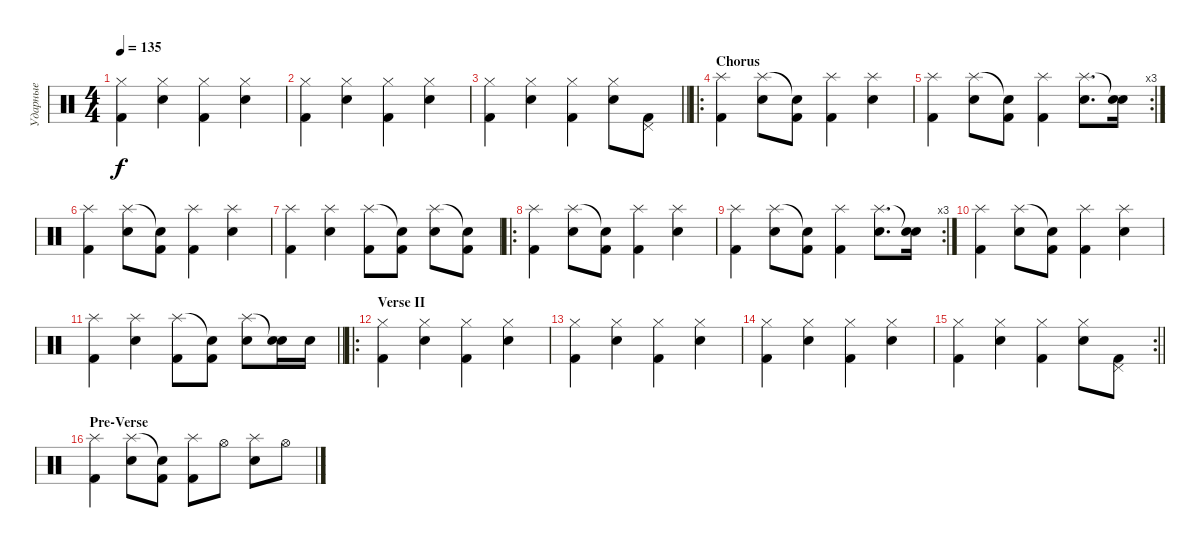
\track ("Ударные" "Ударные") {instrument percussion}
\staff {score}
\articulation defaults
\ts (4 4)
\tempo 135
\clef neutral
\ks c
("Hi-Hat (closed)" "Kick (hit) 2").4{dy f} ("Hi-Hat (closed)" "Electric Snare (hit)").4 ("Hi-Hat (closed)" "Kick (hit) 2").4 ("Hi-Hat (closed)" "Electric Snare (hit)").4 |
("Hi-Hat (closed)" "Kick (hit) 2").4 ("Hi-Hat (closed)" "Electric Snare (hit)").4 ("Hi-Hat (closed)" "Kick (hit) 2").4 ("Hi-Hat (closed)" "Electric Snare (hit)").4 |
\barLineRight lightlight
("Hi-Hat (closed)" "Kick (hit) 2").4 ("Hi-Hat (closed)" "Electric Snare (hit)").4 ("Hi-Hat (closed)" "Kick (hit) 2").4 ("Hi-Hat (closed)" "Electric Snare (hit)").8 ("Pedal Hi-Hat (hit)" "Kick (hit) 2").8 |
\ro
\section ("" "Chorus")
("Splash (hit)" "Kick (hit) 2").4 ("Splash (hit)" "Electric Snare (hit)").8 ("Snare (hit)"{t} "Kick (hit) 2").8 ("Splash (hit)" "Kick (hit) 2").4 ("Splash (hit)" "Electric Snare (hit)").4 |
\rc 3
("Splash (hit)" "Kick (hit) 2").4 ("Splash (hit)" "Electric Snare (hit)").8 ("Snare (hit)"{t} "Kick (hit) 2").8 ("Splash (hit)" "Kick (hit) 2").4 ("Splash (hit)" "Electric Snare (hit)").8{d} ("Snare (hit)"{t} "Electric Snare (hit)").16 |
("Splash (hit)" "Kick (hit) 2").4 ("Splash (hit)" "Electric Snare (hit)").8 ("Snare (hit)"{t} "Kick (hit) 2").8 ("Splash (hit)" "Kick (hit) 2").4 ("Splash (hit)" "Electric Snare (hit)").4 |
("Splash (hit)" "Kick (hit) 2").4 ("Splash (hit)" "Electric Snare (hit)").4 ("Splash (hit)" "Kick (hit) 2").8 ("Snare (hit)"{t} "Kick (hit) 2").8 ("Splash (hit)" "Electric Snare (hit)").8 ("Snare (hit)"{t} "Kick (hit) 2").8 |
\ro
("Splash (hit)" "Kick (hit) 2").4 ("Splash (hit)" "Electric Snare (hit)").8 ("Snare (hit)"{t} "Kick (hit) 2").8 ("Splash (hit)" "Kick (hit) 2").4 ("Splash (hit)" "Electric Snare (hit)").4 |
\rc 3
("Splash (hit)" "Kick (hit) 2").4 ("Splash (hit)" "Electric Snare (hit)").8 ("Snare (hit)"{t} "Kick (hit) 2").8 ("Splash (hit)" "Kick (hit) 2").4 ("Splash (hit)" "Electric Snare (hit)").8{d} ("Snare (hit)"{t} "Electric Snare (hit)").16 |
("Splash (hit)" "Kick (hit) 2").4 ("Splash (hit)" "Electric Snare (hit)").8 ("Snare (hit)"{t} "Kick (hit) 2").8 ("Splash (hit)" "Kick (hit) 2").4 ("Splash (hit)" "Electric Snare (hit)").4 |
\barLineRight lightlight
("Splash (hit)" "Kick (hit) 2").4 ("Splash (hit)" "Electric Snare (hit)").4 ("Splash (hit)" "Kick (hit) 2").8 ("Snare (hit)"{t} "Kick (hit) 2").8 ("Splash (hit)" "Electric Snare (hit)").8 ("Snare (hit)"{t} "Electric Snare (hit)").16 "Electric Snare (hit)".16 |
\ro
\section ("" "Verse II")
("Hi-Hat (closed)" "Kick (hit) 2").4 ("Hi-Hat (closed)" "Electric Snare (hit)").4 ("Hi-Hat (closed)" "Kick (hit) 2").4 ("Hi-Hat (closed)" "Electric Snare (hit)").4 |
("Hi-Hat (closed)" "Kick (hit) 2").4 ("Hi-Hat (closed)" "Electric Snare (hit)").4 ("Hi-Hat (closed)" "Kick (hit) 2").4 ("Hi-Hat (closed)" "Electric Snare (hit)").4 |
("Hi-Hat (closed)" "Kick (hit) 2").4 ("Hi-Hat (closed)" "Electric Snare (hit)").4 ("Hi-Hat (closed)" "Kick (hit) 2").4 ("Hi-Hat (closed)" "Electric Snare (hit)").4 |
\rc 2
\barLineRight lightlight
("Hi-Hat (closed)" "Kick (hit) 2").4 ("Hi-Hat (closed)" "Electric Snare (hit)").4 ("Hi-Hat (closed)" "Kick (hit) 2").4 ("Hi-Hat (closed)" "Electric Snare (hit)").8 ("Pedal Hi-Hat (hit)" "Kick (hit) 2").8 |
\section ("" "Pre-Verse")
("Splash (hit)" "Kick (hit) 2").4 ("Splash (hit)" "Electric Snare (hit)").8 ("Snare (hit)"{t} "Kick (hit) 2").8 ("Splash (hit)" "Kick (hit) 2").8 "Hi-Hat (open)".8 ("Splash (hit)" "Electric Snare (hit)").8 "Hi-Hat (open)".8
